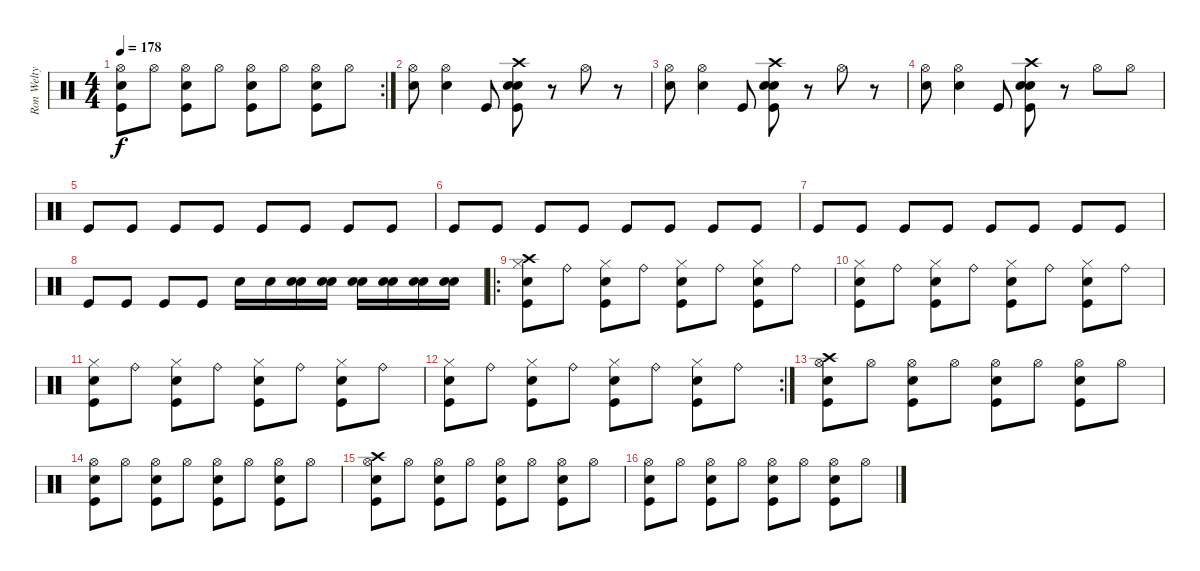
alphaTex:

\track ("Ron Welty" "Ron Welty") {instrument percussion}
\staff {score}
\articulation defaults
\rc 2
\ts (4 4)
\tempo 178
\clef neutral
\ks c
("Electric Snare (hit)" "Hi-Hat (open)" "Kick (hit)").8{dy f} "Hi-Hat (open)".8 ("Electric Snare (hit)" "Hi-Hat (open)" "Kick (hit)").8 "Hi-Hat (open)".8 ("Electric Snare (hit)" "Hi-Hat (open)" "Kick (hit)").8 "Hi-Hat (open)".8 ("Electric Snare (hit)" "Hi-Hat (open)" "Kick (hit)").8 "Hi-Hat (open)".8 |
("Snare (hit) 2" "Hi-Hat (open)").8 ("Snare (hit) 2" "Hi-Hat (open)").4 "Kick (hit)".8 ("Electric Snare (hit)" "Crash high (hit)" "Snare (hit) 2" "Kick (hit)").8 r.8 "Hi-Hat (open)".8 r.8 |
("Snare (hit) 2" "Hi-Hat (open)").8 ("Snare (hit) 2" "Hi-Hat (open)").4 "Kick (hit)".8 ("Electric Snare (hit)" "Crash high (hit)" "Snare (hit) 2" "Kick (hit)").8 r.8 "Hi-Hat (open)".8 r.8 |
("Snare (hit) 2" "Hi-Hat (open)").8 ("Snare (hit) 2" "Hi-Hat (open)").4 "Kick (hit)".8 ("Electric Snare (hit)" "Crash high (hit)" "Snare (hit) 2" "Kick (hit)").8 r.8 "Hi-Hat (open)".8 "Hi-Hat (open)".8 |
"Kick (hit)".8 "Kick (hit)".8 "Kick (hit)".8 "Kick (hit)".8 "Kick (hit)".8 "Kick (hit)".8 "Kick (hit)".8 "Kick (hit)".8 |
"Kick (hit)".8 "Kick (hit)".8 "Kick (hit)".8 "Kick (hit)".8 "Kick (hit)".8 "Kick (hit)".8 "Kick (hit)".8 "Kick (hit)".8 |
"Kick (hit)".8 "Kick (hit)".8 "Kick (hit)".8 "Kick (hit)".8 "Kick (hit)".8 "Kick (hit)".8 "Kick (hit)".8 "Kick (hit)".8 |
"Kick (hit)".8 "Kick (hit)".8 "Kick (hit)".8 "Kick (hit)".8 "Snare (hit) 2".16 "Snare (hit) 2".16 ("Electric Snare (hit)" "Snare (hit) 2").16 ("Electric Snare (hit)" "Snare (hit) 2").16 ("Electric Snare (hit)" "Snare (hit) 2").16 ("Electric Snare (hit)" "Snare (hit) 2").16 ("Electric Snare (hit)" "Snare (hit) 2").16 ("Electric Snare (hit)" "Snare (hit) 2").16 |
\ro
("Crash high (hit)" "Electric Snare (hit)" "Hi-Hat (closed)" "Kick (hit)").8 "Ride (bell)".8 ("Electric Snare (hit)" "Hi-Hat (closed)" "Kick (hit)").8 "Ride (bell)".8 ("Electric Snare (hit)" "Hi-Hat (closed)" "Kick (hit)").8 "Ride (bell)".8 ("Electric Snare (hit)" "Hi-Hat (closed)" "Kick (hit)").8 "Ride (bell)".8 |
("Electric Snare (hit)" "Hi-Hat (closed)" "Kick (hit)").8 "Ride (bell)".8 ("Electric Snare (hit)" "Hi-Hat (closed)" "Kick (hit)").8 "Ride (bell)".8 ("Electric Snare (hit)" "Hi-Hat (closed)" "Kick (hit)").8 "Ride (bell)".8 ("Electric Snare (hit)" "Hi-Hat (closed)" "Kick (hit)").8 "Ride (bell)".8 |
("Electric Snare (hit)" "Hi-Hat (closed)" "Kick (hit)").8 "Ride (bell)".8 ("Electric Snare (hit)" "Hi-Hat (closed)" "Kick (hit)").8 "Ride (bell)".8 ("Electric Snare (hit)" "Hi-Hat (closed)" "Kick (hit)").8 "Ride (bell)".8 ("Electric Snare (hit)" "Hi-Hat (closed)" "Kick (hit)").8 "Ride (bell)".8 |
\rc 2
("Electric Snare (hit)" "Hi-Hat (closed)" "Kick (hit)").8 "Ride (bell)".8 ("Electric Snare (hit)" "Hi-Hat (closed)" "Kick (hit)").8 "Ride (bell)".8 ("Electric Snare (hit)" "Hi-Hat (closed)" "Kick (hit)").8 "Ride (bell)".8 ("Electric Snare (hit)" "Hi-Hat (closed)" "Kick (hit)").8 "Ride (bell)".8 |
("Crash high (hit)" "Electric Snare (hit)" "Hi-Hat (open)" "Kick (hit)").8 "Hi-Hat (open)".8 ("Electric Snare (hit)" "Hi-Hat (open)" "Kick (hit)").8 "Hi-Hat (open)".8 ("Electric Snare (hit)" "Hi-Hat (open)" "Kick (hit)").8 "Hi-Hat (open)".8 ("Electric Snare (hit)" "Hi-Hat (open)" "Kick (hit)").8 "Hi-Hat (open)".8 |
("Electric Snare (hit)" "Hi-Hat (open)" "Kick (hit)").8 "Hi-Hat (open)".8 ("Electric Snare (hit)" "Hi-Hat (open)" "Kick (hit)").8 "Hi-Hat (open)".8 ("Electric Snare (hit)" "Hi-Hat (open)" "Kick (hit)").8 "Hi-Hat (open)".8 ("Electric Snare (hit)" "Hi-Hat (open)" "Kick (hit)").8 "Hi-Hat (open)".8 |
("Crash high (hit)" "Electric Snare (hit)" "Hi-Hat (open)" "Kick (hit)").8 "Hi-Hat (open)".8 ("Electric Snare (hit)" "Hi-Hat (open)" "Kick (hit)").8 "Hi-Hat (open)".8 ("Electric Snare (hit)" "Hi-Hat (open)" "Kick (hit)").8 "Hi-Hat (open)".8 ("Electric Snare (hit)" "Hi-Hat (open)" "Kick (hit)").8 "Hi-Hat (open)".8 |
("Electric Snare (hit)" "Hi-Hat (open)" "Kick (hit)").8 "Hi-Hat (open)".8 ("Electric Snare (hit)" "Hi-Hat (open)" "Kick (hit)").8 "Hi-Hat (open)".8 ("Electric Snare (hit)" "Hi-Hat (open)" "Kick (hit)").8 "Hi-Hat (open)".8 ("Electric Snare (hit)" "Hi-Hat (open)" "Kick (hit)").8 "Hi-Hat (open)".8
